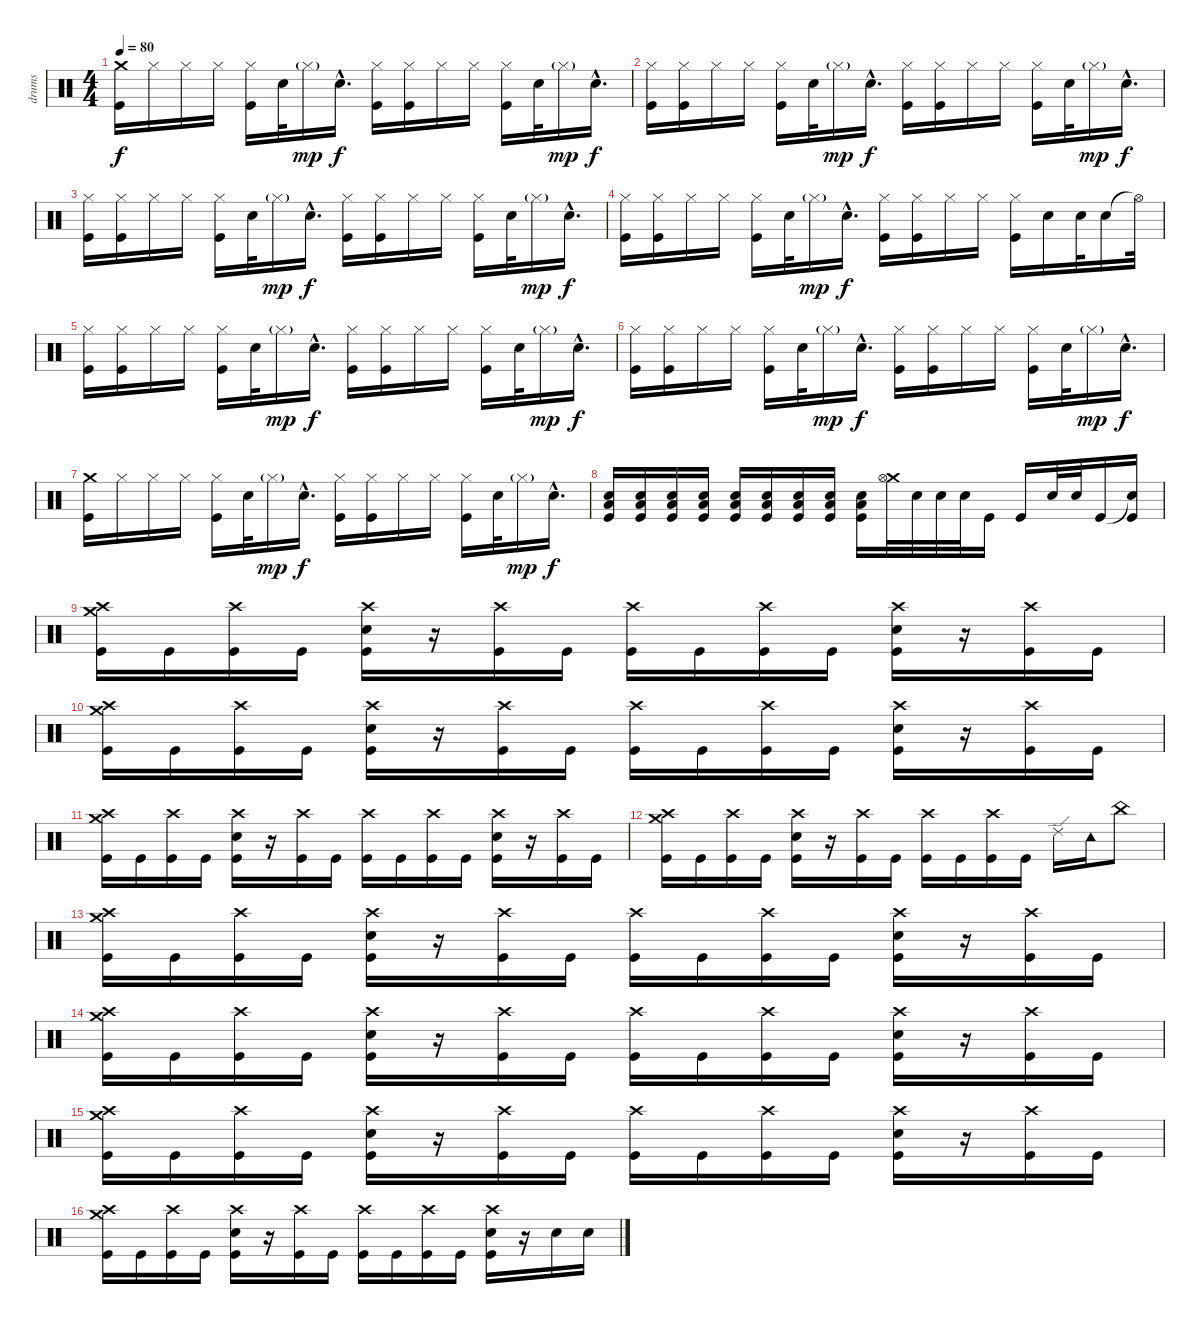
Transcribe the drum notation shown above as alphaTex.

\track ("drums" "drums") {instrument percussion}
\staff {score}
\articulation defaults
\ts (4 4)
\tempo 80
\clef neutral
\ks c
("Crash medium (hit)" "Kick (hit)").16{dy f} "Hi-Hat (closed)".16 "Hi-Hat (closed)".16 "Hi-Hat (closed)".16 ("Hi-Hat (closed)" "Kick (hit)").16 "Snare (hit) 2".32 "Hi-Hat (closed)"{g}.16{dy mp} "Snare (hit) 2"{hac}.16{d dy f} ("Hi-Hat (closed)" "Kick (hit)").16 ("Hi-Hat (closed)" "Kick (hit)").16 "Hi-Hat (closed)".16 "Hi-Hat (closed)".16 ("Hi-Hat (closed)" "Kick (hit)").16 "Snare (hit) 2".32 "Hi-Hat (closed)"{g}.16{dy mp} "Snare (hit) 2"{hac}.16{d dy f} |
("Hi-Hat (closed)" "Kick (hit)").16 ("Hi-Hat (closed)" "Kick (hit)").16 "Hi-Hat (closed)".16 "Hi-Hat (closed)".16 ("Hi-Hat (closed)" "Kick (hit)").16 "Snare (hit) 2".32 "Hi-Hat (closed)"{g}.16{dy mp} "Snare (hit) 2"{hac}.16{d dy f} ("Hi-Hat (closed)" "Kick (hit)").16 ("Hi-Hat (closed)" "Kick (hit)").16 "Hi-Hat (closed)".16 "Hi-Hat (closed)".16 ("Hi-Hat (closed)" "Kick (hit)").16 "Snare (hit) 2".32 "Hi-Hat (closed)"{g}.16{dy mp} "Snare (hit) 2"{hac}.16{d dy f} |
("Hi-Hat (closed)" "Kick (hit)").16 ("Hi-Hat (closed)" "Kick (hit)").16 "Hi-Hat (closed)".16 "Hi-Hat (closed)".16 ("Hi-Hat (closed)" "Kick (hit)").16 "Snare (hit) 2".32 "Hi-Hat (closed)"{g}.16{dy mp} "Snare (hit) 2"{hac}.16{d dy f} ("Hi-Hat (closed)" "Kick (hit)").16 ("Hi-Hat (closed)" "Kick (hit)").16 "Hi-Hat (closed)".16 "Hi-Hat (closed)".16 ("Hi-Hat (closed)" "Kick (hit)").16 "Snare (hit) 2".32 "Hi-Hat (closed)"{g}.16{dy mp} "Snare (hit) 2"{hac}.16{d dy f} |
("Hi-Hat (closed)" "Kick (hit)").16 ("Hi-Hat (closed)" "Kick (hit)").16 "Hi-Hat (closed)".16 "Hi-Hat (closed)".16 ("Hi-Hat (closed)" "Kick (hit)").16 "Snare (hit) 2".32 "Hi-Hat (closed)"{g}.16{dy mp} "Snare (hit) 2"{hac}.16{d dy f} ("Hi-Hat (closed)" "Kick (hit)").16 ("Hi-Hat (closed)" "Kick (hit)").16 "Hi-Hat (closed)".16 "Hi-Hat (closed)".16 ("Hi-Hat (closed)" "Kick (hit)").16 "Snare (hit) 2".16 "Snare (hit) 2".32 "Snare (hit) 2".16 "Hi-Hat (open)"{t}.32 |
("Hi-Hat (closed)" "Kick (hit)").16 ("Hi-Hat (closed)" "Kick (hit)").16 "Hi-Hat (closed)".16 "Hi-Hat (closed)".16 ("Hi-Hat (closed)" "Kick (hit)").16 "Snare (hit) 2".32 "Hi-Hat (closed)"{g}.16{dy mp} "Snare (hit) 2"{hac}.16{d dy f} ("Hi-Hat (closed)" "Kick (hit)").16 ("Hi-Hat (closed)" "Kick (hit)").16 "Hi-Hat (closed)".16 "Hi-Hat (closed)".16 ("Hi-Hat (closed)" "Kick (hit)").16 "Snare (hit) 2".32 "Hi-Hat (closed)"{g}.16{dy mp} "Snare (hit) 2"{hac}.16{d dy f} |
("Hi-Hat (closed)" "Kick (hit)").16 ("Hi-Hat (closed)" "Kick (hit)").16 "Hi-Hat (closed)".16 "Hi-Hat (closed)".16 ("Hi-Hat (closed)" "Kick (hit)").16 "Snare (hit) 2".32 "Hi-Hat (closed)"{g}.16{dy mp} "Snare (hit) 2"{hac}.16{d dy f} ("Hi-Hat (closed)" "Kick (hit)").16 ("Hi-Hat (closed)" "Kick (hit)").16 "Hi-Hat (closed)".16 "Hi-Hat (closed)".16 ("Hi-Hat (closed)" "Kick (hit)").16 "Snare (hit) 2".32 "Hi-Hat (closed)"{g}.16{dy mp} "Snare (hit) 2"{hac}.16{d dy f} |
("Crash medium (hit)" "Kick (hit)").16 "Hi-Hat (closed)".16 "Hi-Hat (closed)".16 "Hi-Hat (closed)".16 ("Hi-Hat (closed)" "Kick (hit)").16 "Snare (hit) 2".32 "Hi-Hat (closed)"{g}.16{dy mp} "Snare (hit) 2"{hac}.16{d dy f} ("Hi-Hat (closed)" "Kick (hit)").16 ("Hi-Hat (closed)" "Kick (hit)").16 "Hi-Hat (closed)".16 "Hi-Hat (closed)".16 ("Hi-Hat (closed)" "Kick (hit)").16 "Snare (hit) 2".32 "Hi-Hat (closed)"{g}.16{dy mp} "Snare (hit) 2"{hac}.16{d dy f} |
("Snare (hit) 2" "Low Floor Tom (hit)" "Kick (hit)").16 ("Snare (hit) 2" "Low Floor Tom (hit)" "Kick (hit)").16 ("Snare (hit) 2" "Low Floor Tom (hit)" "Kick (hit)").16 ("Snare (hit) 2" "Low Floor Tom (hit)" "Kick (hit)").16 ("Snare (hit) 2" "Low Floor Tom (hit)" "Kick (hit)").16 ("Snare (hit) 2" "Low Floor Tom (hit)" "Kick (hit)").16 ("Snare (hit) 2" "Low Floor Tom (hit)" "Kick (hit)").16 ("Snare (hit) 2" "Low Floor Tom (hit)" "Kick (hit)").16 ("Snare (hit) 2" "Low Floor Tom (hit)" "Kick (hit)").16 ("Crash medium (hit)" "Hi-Hat (open)").32 "Snare (hit) 2".32 "Snare (hit) 2".32 "Snare (hit) 2".32 "Kick (hit)".16 "Kick (hit)".16 "Snare (hit) 2".32 "Snare (hit) 2".32 "Kick (hit)".16 ("Snare (hit)"{t} "Kick (hit)").16 |
("Crash medium (hit)" "Crash high (hit)" "Kick (hit)").16 "Kick (hit)".16 ("Crash high (hit)" "Kick (hit)").16 "Kick (hit)".16 ("Crash high (hit)" "Snare (hit) 2" "Kick (hit)").16 r.16 ("Crash high (hit)" "Kick (hit)").16 "Kick (hit)".16 ("Crash high (hit)" "Kick (hit)").16 "Kick (hit)".16 ("Crash high (hit)" "Kick (hit)").16 "Kick (hit)".16 ("Crash high (hit)" "Snare (hit) 2" "Kick (hit)").16 r.16 ("Crash high (hit)" "Kick (hit)").16 "Kick (hit)".16 |
("Crash medium (hit)" "Crash high (hit)" "Kick (hit)").16 "Kick (hit)".16 ("Crash high (hit)" "Kick (hit)").16 "Kick (hit)".16 ("Crash high (hit)" "Snare (hit) 2" "Kick (hit)").16 r.16 ("Crash high (hit)" "Kick (hit)").16 "Kick (hit)".16 ("Crash high (hit)" "Kick (hit)").16 "Kick (hit)".16 ("Crash high (hit)" "Kick (hit)").16 "Kick (hit)".16 ("Crash high (hit)" "Snare (hit) 2" "Kick (hit)").16 r.16 ("Crash high (hit)" "Kick (hit)").16 "Kick (hit)".16 |
("Crash medium (hit)" "Crash high (hit)" "Kick (hit)").16 "Kick (hit)".16 ("Crash high (hit)" "Kick (hit)").16 "Kick (hit)".16 ("Crash high (hit)" "Snare (hit) 2" "Kick (hit)").16 r.16 ("Crash high (hit)" "Kick (hit)").16 "Kick (hit)".16 ("Crash high (hit)" "Kick (hit)").16 "Kick (hit)".16 ("Crash high (hit)" "Kick (hit)").16 "Kick (hit)".16 ("Crash high (hit)" "Snare (hit) 2" "Kick (hit)").16 r.16 ("Crash high (hit)" "Kick (hit)").16 "Kick (hit)".16 |
("Crash medium (hit)" "Crash high (hit)" "Kick (hit)").16 "Kick (hit)".16 ("Crash high (hit)" "Kick (hit)").16 "Kick (hit)".16 ("Crash high (hit)" "Snare (hit) 2" "Kick (hit)").16 r.16 ("Crash high (hit)" "Kick (hit)").16 "Kick (hit)".16 ("Crash high (hit)" "Kick (hit)").16 "Kick (hit)".16 ("Crash high (hit)" "Kick (hit)").16 "Kick (hit)".16 "Ride (edge) 2".16 "Tambourine (hit)".16 "China (hit)".8 |
("Crash medium (hit)" "Crash high (hit)" "Kick (hit)").16 "Kick (hit)".16 ("Crash high (hit)" "Kick (hit)").16 "Kick (hit)".16 ("Crash high (hit)" "Snare (hit) 2" "Kick (hit)").16 r.16 ("Crash high (hit)" "Kick (hit)").16 "Kick (hit)".16 ("Crash high (hit)" "Kick (hit)").16 "Kick (hit)".16 ("Crash high (hit)" "Kick (hit)").16 "Kick (hit)".16 ("Crash high (hit)" "Snare (hit) 2" "Kick (hit)").16 r.16 ("Crash high (hit)" "Kick (hit)").16 "Kick (hit)".16 |
("Crash medium (hit)" "Crash high (hit)" "Kick (hit)").16 "Kick (hit)".16 ("Crash high (hit)" "Kick (hit)").16 "Kick (hit)".16 ("Crash high (hit)" "Snare (hit) 2" "Kick (hit)").16 r.16 ("Crash high (hit)" "Kick (hit)").16 "Kick (hit)".16 ("Crash high (hit)" "Kick (hit)").16 "Kick (hit)".16 ("Crash high (hit)" "Kick (hit)").16 "Kick (hit)".16 ("Crash high (hit)" "Snare (hit) 2" "Kick (hit)").16 r.16 ("Crash high (hit)" "Kick (hit)").16 "Kick (hit)".16 |
("Crash medium (hit)" "Crash high (hit)" "Kick (hit)").16 "Kick (hit)".16 ("Crash high (hit)" "Kick (hit)").16 "Kick (hit)".16 ("Crash high (hit)" "Snare (hit) 2" "Kick (hit)").16 r.16 ("Crash high (hit)" "Kick (hit)").16 "Kick (hit)".16 ("Crash high (hit)" "Kick (hit)").16 "Kick (hit)".16 ("Crash high (hit)" "Kick (hit)").16 "Kick (hit)".16 ("Crash high (hit)" "Snare (hit) 2" "Kick (hit)").16 r.16 ("Crash high (hit)" "Kick (hit)").16 "Kick (hit)".16 |
("Crash medium (hit)" "Crash high (hit)" "Kick (hit)").16 "Kick (hit)".16 ("Crash high (hit)" "Kick (hit)").16 "Kick (hit)".16 ("Crash high (hit)" "Snare (hit) 2" "Kick (hit)").16 r.16 ("Crash high (hit)" "Kick (hit)").16 "Kick (hit)".16 ("Crash high (hit)" "Kick (hit)").16 "Kick (hit)".16 ("Crash high (hit)" "Kick (hit)").16 "Kick (hit)".16 ("Crash high (hit)" "Snare (hit) 2" "Kick (hit)").16 r.16 "Snare (hit) 2".16 "Snare (hit) 2".16
